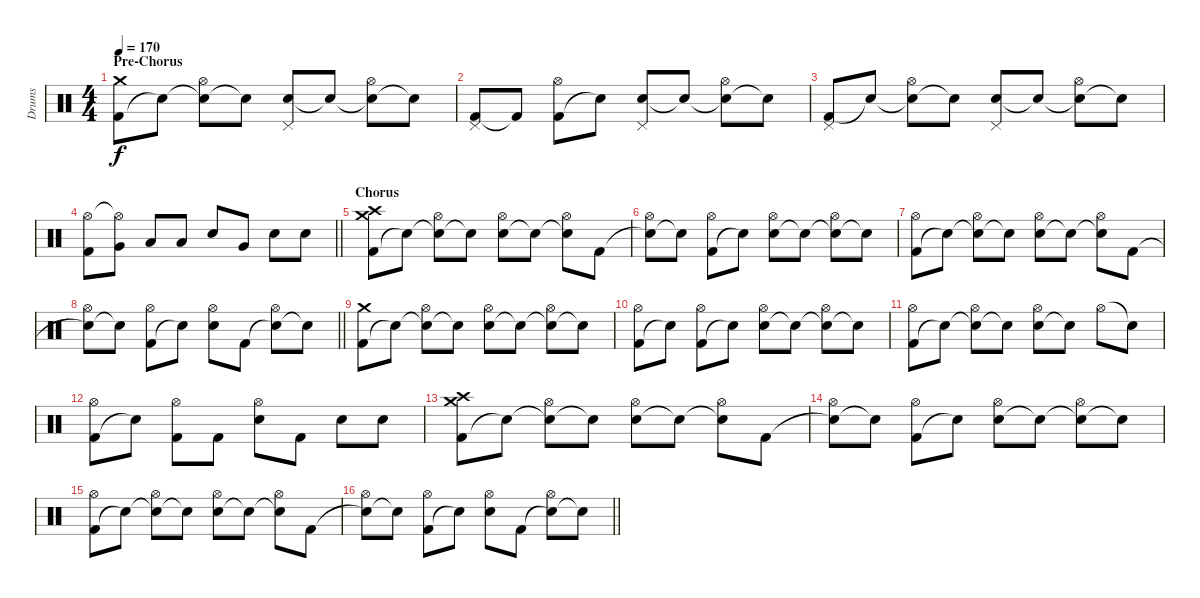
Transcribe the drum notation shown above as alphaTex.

\track ("Drums" "Drums") {instrument percussion}
\staff {score}
\articulation defaults
\ts (4 4)
\section ("" "Pre-Chorus")
\tempo 170
\clef neutral
\ks c
("Kick (hit) 2" "Crash medium (hit)").8{dy f} "Snare (hit)"{t}.8 ("Snare (hit)"{t} "Hi-Hat (open)").8 "Snare (hit)"{t}.8 ("Electric Snare (hit)" "Pedal Hi-Hat (hit)").8 "Snare (hit)"{t}.8 ("Snare (hit)"{t} "Hi-Hat (open)").8 "Snare (hit)"{t}.8 |
("Kick (hit) 2" "Pedal Hi-Hat (hit)").8 "Kick (hit) 2"{t}.8 ("Kick (hit) 2" "Hi-Hat (open)").8 "Snare (hit)"{t}.8 ("Electric Snare (hit)" "Pedal Hi-Hat (hit)").8 "Snare (hit)"{t}.8 ("Snare (hit)"{t} "Hi-Hat (open)").8 "Snare (hit)"{t}.8 |
("Kick (hit) 2" "Pedal Hi-Hat (hit)").8 "Snare (hit)"{t}.8 ("Snare (hit)"{t} "Hi-Hat (open)").8 "Snare (hit)"{t}.8 ("Electric Snare (hit)" "Pedal Hi-Hat (hit)").8 "Snare (hit)"{t}.8 ("Snare (hit)"{t} "Hi-Hat (open)").8 "Snare (hit)"{t}.8 |
\barLineRight lightlight
("Kick (hit) 2" "Hi-Hat (open)").8 ("Very Low Tom (hit)" "Hi-Hat (open)"{t}).8 "Low Tom (hit)".8 "Low Floor Tom (hit)".8 "Electric Snare (hit)".8 "Very Low Tom (hit)".8 "Electric Snare (hit)".8 "Electric Snare (hit)".8 |
\section ("" "Chorus")
("Kick (hit) 2" "Crash medium (hit)" "Crash high (hit)").8 "Snare (hit)"{t}.8 ("Snare (hit)"{t} "Hi-Hat (open)").8 "Snare (hit)"{t}.8 ("Electric Snare (hit)" "Hi-Hat (open)").8 "Snare (hit)"{t}.8 ("Snare (hit)"{t} "Hi-Hat (open)").8 "Kick (hit) 2".8 |
("Snare (hit)"{t} "Hi-Hat (open)").8 "Snare (hit)"{t}.8 ("Kick (hit) 2" "Hi-Hat (open)").8 "Snare (hit)"{t}.8 ("Electric Snare (hit)" "Hi-Hat (open)").8 "Snare (hit)"{t}.8 ("Snare (hit)"{t} "Hi-Hat (open)").8 "Snare (hit)"{t}.8 |
("Kick (hit) 2" "Hi-Hat (open)").8 "Snare (hit)"{t}.8 ("Snare (hit)"{t} "Hi-Hat (open)").8 "Snare (hit)"{t}.8 ("Electric Snare (hit)" "Hi-Hat (open)").8 "Snare (hit)"{t}.8 ("Snare (hit)"{t} "Hi-Hat (open)").8 "Kick (hit) 2".8 |
\barLineRight lightlight
("Snare (hit)"{t} "Hi-Hat (open)").8 "Snare (hit)"{t}.8 ("Kick (hit) 2" "Hi-Hat (open)").8 "Snare (hit)"{t}.8 ("Electric Snare (hit)" "Hi-Hat (open)").8 "Kick (hit) 2".8 ("Snare (hit)"{t} "Hi-Hat (open)").8 "Snare (hit)"{t}.8 |
("Kick (hit) 2" "Crash medium (hit)").8 "Snare (hit)"{t}.8 ("Snare (hit)"{t} "Hi-Hat (open)").8 "Snare (hit)"{t}.8 ("Electric Snare (hit)" "Hi-Hat (open)").8 "Snare (hit)"{t}.8 ("Snare (hit)"{t} "Hi-Hat (open)").8 "Snare (hit)"{t}.8 |
("Kick (hit) 2" "Hi-Hat (open)").8 "Snare (hit)"{t}.8 ("Kick (hit) 2" "Hi-Hat (open)").8 "Snare (hit)"{t}.8 ("Electric Snare (hit)" "Hi-Hat (open)").8 "Snare (hit)"{t}.8 ("Snare (hit)"{t} "Hi-Hat (open)").8 "Snare (hit)"{t}.8 |
("Kick (hit) 2" "Hi-Hat (open)").8 "Snare (hit)"{t}.8 ("Snare (hit)"{t} "Hi-Hat (open)").8 "Snare (hit)"{t}.8 ("Electric Snare (hit)" "Hi-Hat (open)").8 "Snare (hit)"{t}.8 "Hi-Hat (open)".8 "Snare (hit)"{t}.8 |
("Kick (hit) 2" "Hi-Hat (open)").8 "Snare (hit)"{t}.8 ("Kick (hit) 2" "Hi-Hat (open)").8 "Kick (hit) 2".8 ("Electric Snare (hit)" "Hi-Hat (open)").8 "Kick (hit) 2".8 "Electric Snare (hit)".8 "Electric Snare (hit)".8 |
("Kick (hit) 2" "Crash medium (hit)" "Crash high (hit)").8 "Snare (hit)"{t}.8 ("Snare (hit)"{t} "Hi-Hat (open)").8 "Snare (hit)"{t}.8 ("Electric Snare (hit)" "Hi-Hat (open)").8 "Snare (hit)"{t}.8 ("Snare (hit)"{t} "Hi-Hat (open)").8 "Kick (hit) 2".8 |
("Snare (hit)"{t} "Hi-Hat (open)").8 "Snare (hit)"{t}.8 ("Kick (hit) 2" "Hi-Hat (open)").8 "Snare (hit)"{t}.8 ("Electric Snare (hit)" "Hi-Hat (open)").8 "Snare (hit)"{t}.8 ("Snare (hit)"{t} "Hi-Hat (open)").8 "Snare (hit)"{t}.8 |
("Kick (hit) 2" "Hi-Hat (open)").8 "Snare (hit)"{t}.8 ("Snare (hit)"{t} "Hi-Hat (open)").8 "Snare (hit)"{t}.8 ("Electric Snare (hit)" "Hi-Hat (open)").8 "Snare (hit)"{t}.8 ("Snare (hit)"{t} "Hi-Hat (open)").8 "Kick (hit) 2".8 |
\barLineRight lightlight
("Snare (hit)"{t} "Hi-Hat (open)").8 "Snare (hit)"{t}.8 ("Kick (hit) 2" "Hi-Hat (open)").8 "Snare (hit)"{t}.8 ("Electric Snare (hit)" "Hi-Hat (open)").8 "Kick (hit) 2".8 ("Snare (hit)"{t} "Hi-Hat (open)").8 "Snare (hit)"{t}.8
